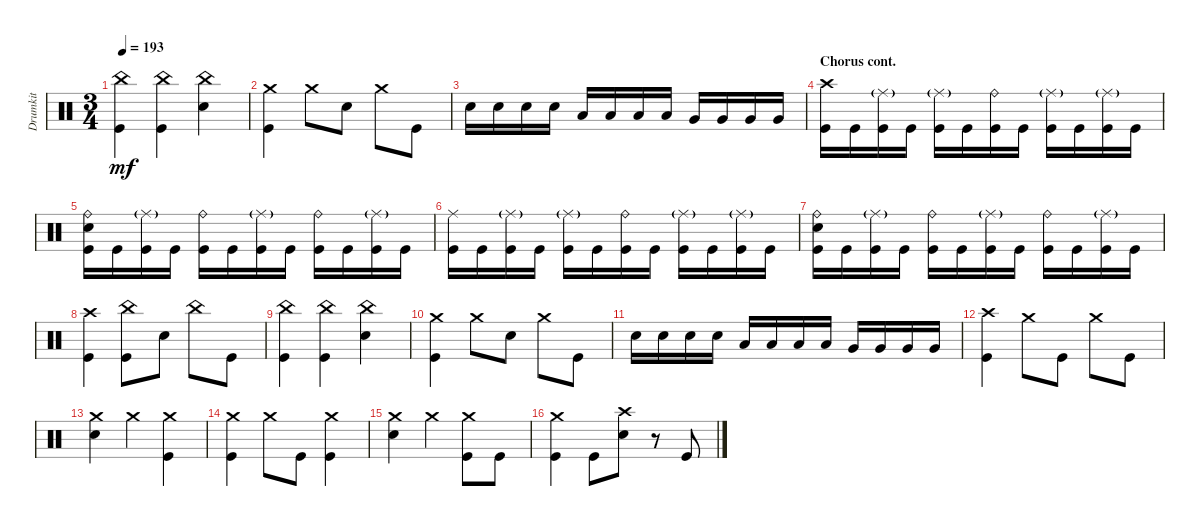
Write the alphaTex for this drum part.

\track ("Drumkit" "Drumkit") {instrument percussion}
\staff {score}
\articulation defaults
\ts (3 4)
\tempo 193
\clef neutral
\ks c
("Kick (hit)" "China (hit)").4{dy mf} ("Kick (hit)" "China (hit)").4 ("Snare (hit) 2" "China (hit)").4 |
("Kick (hit)" "Crash medium (hit)").4 "Crash medium (hit)".8 "Snare (hit) 2".8 "Crash medium (hit)".8 "Kick (hit)".8 |
"Snare (hit) 2".16 "Snare (hit) 2".16 "Snare (hit) 2".16 "Snare (hit) 2".16 "Low Tom (hit)".16 "Low Tom (hit)".16 "Low Tom (hit)".16 "Low Tom (hit)".16 "Very Low Tom (hit)".16 "Very Low Tom (hit)".16 "Very Low Tom (hit)".16 "Very Low Tom (hit)".16 |
\section ("" "Chorus cont.")
("Kick (hit)" "Crash high (hit)").16 "Kick (hit)".16 ("Kick (hit)" "Ride (middle)"{g}).16 "Kick (hit)".16 ("Kick (hit)" "Ride (middle)"{g}).16 "Kick (hit)".16 ("Kick (hit)" "Ride (bell)").16 "Kick (hit)".16 ("Kick (hit)" "Ride (middle)"{g}).16 "Kick (hit)".16 ("Kick (hit)" "Ride (middle)"{g}).16 "Kick (hit)".16 |
("Kick (hit)" "Snare (hit) 2" "Ride (bell)").16 "Kick (hit)".16 ("Kick (hit)" "Ride (middle)"{g}).16 "Kick (hit)".16 ("Kick (hit)" "Ride (bell)").16 "Kick (hit)".16 ("Kick (hit)" "Ride (middle)"{g}).16 "Kick (hit)".16 ("Kick (hit)" "Ride (bell)").16 "Kick (hit)".16 ("Kick (hit)" "Ride (middle)"{g}).16 "Kick (hit)".16 |
("Kick (hit)" "Ride (middle)").16 "Kick (hit)".16 ("Kick (hit)" "Ride (middle)"{g}).16 "Kick (hit)".16 ("Kick (hit)" "Ride (middle)"{g}).16 "Kick (hit)".16 ("Kick (hit)" "Ride (bell)").16 "Kick (hit)".16 ("Kick (hit)" "Ride (middle)"{g}).16 "Kick (hit)".16 ("Kick (hit)" "Ride (middle)"{g}).16 "Kick (hit)".16 |
("Kick (hit)" "Snare (hit) 2" "Ride (bell)").16 "Kick (hit)".16 ("Kick (hit)" "Ride (middle)"{g}).16 "Kick (hit)".16 ("Kick (hit)" "Ride (bell)").16 "Kick (hit)".16 ("Kick (hit)" "Ride (middle)"{g}).16 "Kick (hit)".16 ("Kick (hit)" "Ride (bell)").16 "Kick (hit)".16 ("Kick (hit)" "Ride (middle)"{g}).16 "Kick (hit)".16 |
("Crash high (hit)" "Kick (hit)").4 ("Kick (hit)" "China (hit)").8 "Snare (hit) 2".8 "China (hit)".8 "Kick (hit)".8 |
("Kick (hit)" "China (hit)").4 ("Kick (hit)" "China (hit)").4 ("Snare (hit) 2" "China (hit)").4 |
("Kick (hit)" "Crash medium (hit)").4 "Crash medium (hit)".8 "Snare (hit) 2".8 "Crash medium (hit)".8 "Kick (hit)".8 |
"Snare (hit) 2".16 "Snare (hit) 2".16 "Snare (hit) 2".16 "Snare (hit) 2".16 "Low Tom (hit)".16 "Low Tom (hit)".16 "Low Tom (hit)".16 "Low Tom (hit)".16 "Very Low Tom (hit)".16 "Very Low Tom (hit)".16 "Very Low Tom (hit)".16 "Very Low Tom (hit)".16 |
("Crash high (hit)" "Kick (hit)").4 "Crash medium (hit)".8 "Kick (hit)".8 "Crash medium (hit)".8 "Kick (hit)".8 |
("Snare (hit) 2" "Crash medium (hit)").4 "Crash medium (hit)".4 ("Kick (hit)" "Crash medium (hit)").4 |
("Kick (hit)" "Crash medium (hit)").4 "Crash medium (hit)".8 "Kick (hit)".8 ("Kick (hit)" "Crash medium (hit)").4 |
("Snare (hit) 2" "Crash medium (hit)").4 "Crash medium (hit)".4 ("Kick (hit)" "Crash medium (hit)").8 "Kick (hit)".8 |
("Crash medium (hit)" "Kick (hit)").4 "Kick (hit)".8 ("Snare (hit) 2" "Crash high (hit)").8 r.8 "Kick (hit)".8
